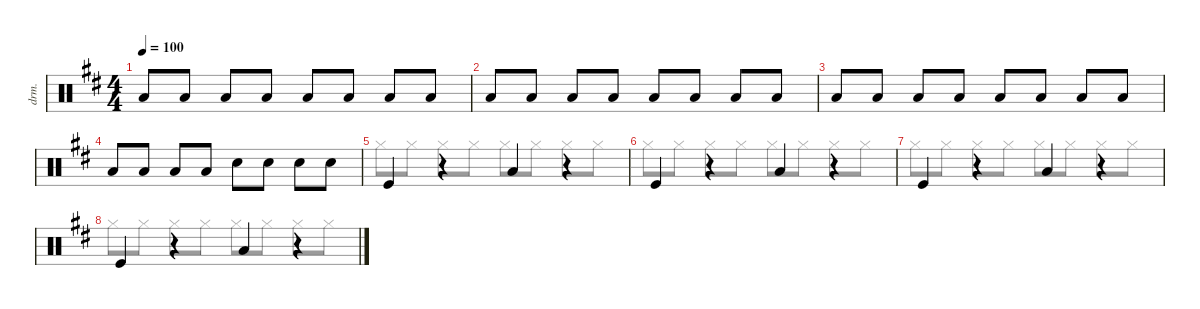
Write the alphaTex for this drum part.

\defaultSystemsLayout 4
\hideDynamics
\bracketExtendMode nobrackets
\otherSystemsTrackNameOrientation horizontal
\track ("Drumkit" "drm.") {instrument percussion}
\staff {score}
\articulation defaults
\voice
\ts (4 4)
\tempo 100
\clef neutral
\ks bminor "Low Tom (hit)"{acc forcenatural}.8{dy mf beam Up} "Low Tom (hit)"{acc forcenatural}.8{beam Up} "Low Tom (hit)"{acc forcenatural}.8{beam Up} "Low Tom (hit)"{acc forcenatural}.8{beam Up} "Low Tom (hit)"{acc forcenatural}.8{beam Up} "Low Tom (hit)"{acc forcenatural}.8{beam Up} "Low Tom (hit)"{acc forcenatural}.8{beam Up} "Low Tom (hit)"{acc forcenatural}.8{beam Up}
|
"Low Tom (hit)"{acc forcenatural}.8{beam Up} "Low Tom (hit)"{acc forcenatural}.8{beam Up} "Low Tom (hit)"{acc forcenatural}.8{beam Up} "Low Tom (hit)"{acc forcenatural}.8{beam Up} "Low Tom (hit)"{acc forcenatural}.8{beam Up} "Low Tom (hit)"{acc forcenatural}.8{beam Up} "Low Tom (hit)"{acc forcenatural}.8{beam Up} "Low Tom (hit)"{acc forcenatural}.8{beam Up} |
"Low Tom (hit)"{acc forcenatural}.8{beam Up} "Low Tom (hit)"{acc forcenatural}.8{beam Up} "Low Tom (hit)"{acc forcenatural}.8{beam Up} "Low Tom (hit)"{acc forcenatural}.8{beam Up} "Low Tom (hit)"{acc forcenatural}.8{beam Up} "Low Tom (hit)"{acc forcenatural}.8{beam Up} "Low Tom (hit)"{acc forcenatural}.8{beam Up} "Low Tom (hit)"{acc forcenatural}.8{beam Up} |
"Low Tom (hit)"{acc forcenatural}.8{beam Up} "Low Tom (hit)"{acc forcenatural}.8{beam Up} "Low Tom (hit)"{acc forcenatural}.8{beam Up} "Low Tom (hit)"{acc forcenatural}.8{beam Up} "Snare (hit) 2"{acc forcenatural}.8{beam Down} "Snare (hit) 2"{acc forcenatural}.8{beam Down} "Snare (hit) 2"{acc forcenatural}.8{beam Down} "Snare (hit) 2"{acc forcenatural}.8{beam Down} |
"Kick (hit)"{acc forcenatural}.4{beam Up} r.4{beam Up} "Low Tom (hit)"{acc forcenatural}.4{beam Up} r.4{beam Up} |
"Kick (hit)"{acc forcenatural}.4{beam Up} r.4{beam Up} "Low Tom (hit)"{acc forcenatural}.4{beam Up} r.4{beam Up} |
"Kick (hit)"{acc forcenatural}.4{beam Up} r.4{beam Up} "Low Tom (hit)"{acc forcenatural}.4{beam Up} r.4{beam Up} |
"Kick (hit)"{acc forcenatural}.4{beam Up} r.4{beam Up} "Low Tom (hit)"{acc forcenatural}.4{beam Up} r.4{beam Up}
\voice
\clef neutral
\ottava regular
\simile none
\ks bminor
|
|
|
|
"Hi-Hat (closed)"{acc forcenatural}.8{beam Down} "Hi-Hat (closed)"{acc forcenatural}.8{beam Down} "Hi-Hat (closed)"{acc forcenatural}.8{beam Down} "Hi-Hat (closed)"{acc forcenatural}.8{beam Down} "Hi-Hat (closed)"{acc forcenatural}.8{beam Down} "Hi-Hat (closed)"{acc forcenatural}.8{beam Down} "Hi-Hat (closed)"{acc forcenatural}.8{beam Down} "Hi-Hat (closed)"{acc forcenatural}.8{beam Down} |
"Hi-Hat (closed)"{acc forcenatural}.8{beam Down} "Hi-Hat (closed)"{acc forcenatural}.8{beam Down} "Hi-Hat (closed)"{acc forcenatural}.8{beam Down} "Hi-Hat (closed)"{acc forcenatural}.8{beam Down} "Hi-Hat (closed)"{acc forcenatural}.8{beam Down} "Hi-Hat (closed)"{acc forcenatural}.8{beam Down} "Hi-Hat (closed)"{acc forcenatural}.8{beam Down} "Hi-Hat (closed)"{acc forcenatural}.8{beam Down} |
"Hi-Hat (closed)"{acc forcenatural}.8{beam Down} "Hi-Hat (closed)"{acc forcenatural}.8{beam Down} "Hi-Hat (closed)"{acc forcenatural}.8{beam Down} "Hi-Hat (closed)"{acc forcenatural}.8{beam Down} "Hi-Hat (closed)"{acc forcenatural}.8{beam Down} "Hi-Hat (closed)"{acc forcenatural}.8{beam Down} "Hi-Hat (closed)"{acc forcenatural}.8{beam Down} "Hi-Hat (closed)"{acc forcenatural}.8{beam Down} |
"Hi-Hat (closed)"{acc forcenatural}.8{beam Down} "Hi-Hat (closed)"{acc forcenatural}.8{beam Down} "Hi-Hat (closed)"{acc forcenatural}.8{beam Down} "Hi-Hat (closed)"{acc forcenatural}.8{beam Down} "Hi-Hat (closed)"{acc forcenatural}.8{beam Down} "Hi-Hat (closed)"{acc forcenatural}.8{beam Down} "Hi-Hat (closed)"{acc forcenatural}.8{beam Down} "Hi-Hat (closed)"{acc forcenatural}.8{beam Down}
